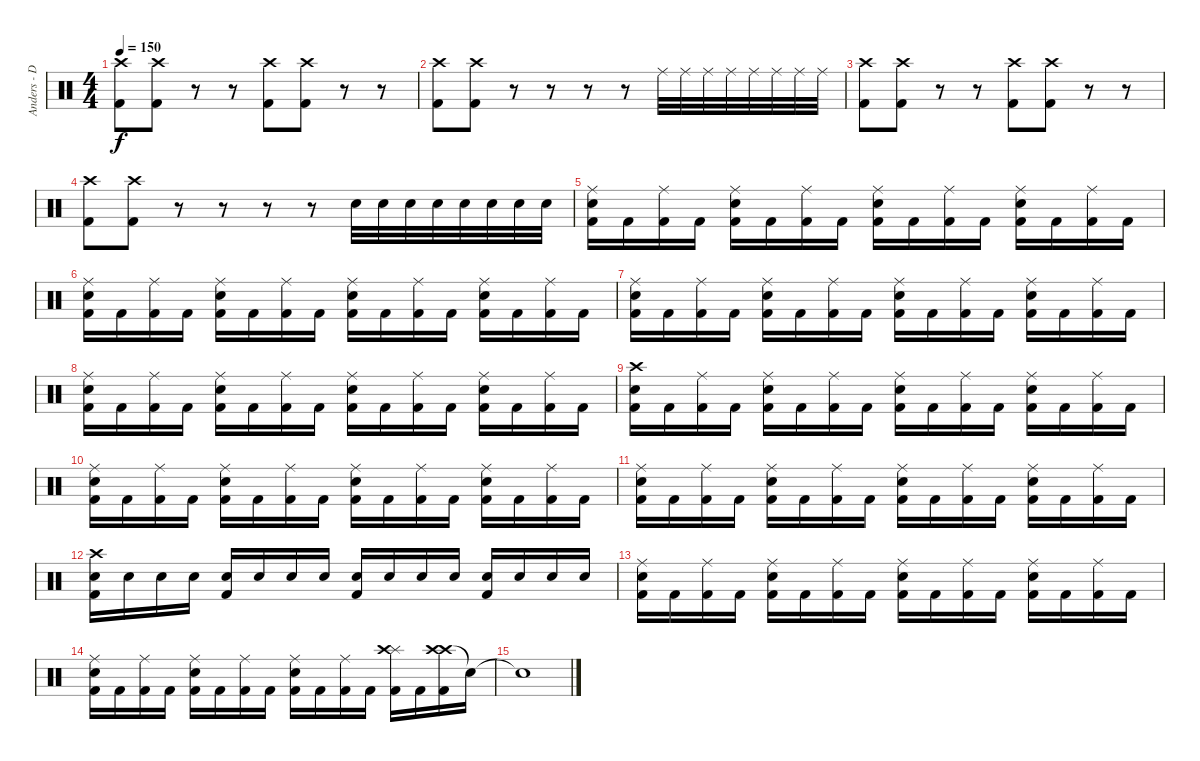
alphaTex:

\track ("Anders - Drums" "Anders - D") {instrument percussion}
\staff {score}
\articulation defaults
\ts (4 4)
\tempo 150
\clef neutral
\ks c
("Crash high (hit)" "Kick (hit) 2").8{dy f} ("Crash high (hit)" "Kick (hit) 2").8 r.8 r.8 ("Crash high (hit)" "Kick (hit) 2").8 ("Crash high (hit)" "Kick (hit) 2").8 r.8 r.8 |
("Crash high (hit)" "Kick (hit) 2").8 ("Crash high (hit)" "Kick (hit) 2").8 r.8 r.8 r.8 r.8 "Ride (middle)".32 "Ride (middle)".32 "Ride (middle)".32 "Ride (middle)".32 "Ride (middle)".32 "Ride (middle)".32 "Ride (middle)".32 "Ride (middle)".32 |
("Crash high (hit)" "Kick (hit) 2").8 ("Crash high (hit)" "Kick (hit) 2").8 r.8 r.8 ("Crash high (hit)" "Kick (hit) 2").8 ("Crash high (hit)" "Kick (hit) 2").8 r.8 r.8 |
("Crash high (hit)" "Kick (hit) 2").8 ("Crash high (hit)" "Kick (hit) 2").8 r.8 r.8 r.8 r.8 "Snare (hit) 2".32 "Snare (hit) 2".32 "Snare (hit) 2".32 "Snare (hit) 2".32 "Snare (hit) 2".32 "Snare (hit) 2".32 "Snare (hit) 2".32 "Snare (hit) 2".32 |
("Ride (middle)" "Snare (hit) 2" "Kick (hit) 2").16 "Kick (hit) 2".16 ("Ride (middle)" "Kick (hit) 2").16 "Kick (hit) 2".16 ("Ride (middle)" "Snare (hit) 2" "Kick (hit) 2").16 "Kick (hit) 2".16 ("Ride (middle)" "Kick (hit) 2").16 "Kick (hit) 2".16 ("Ride (middle)" "Snare (hit) 2" "Kick (hit) 2").16 "Kick (hit) 2".16 ("Ride (middle)" "Kick (hit) 2").16 "Kick (hit) 2".16 ("Ride (middle)" "Snare (hit) 2" "Kick (hit) 2").16 "Kick (hit) 2".16 ("Ride (middle)" "Kick (hit) 2").16 "Kick (hit) 2".16 |
("Ride (middle)" "Snare (hit) 2" "Kick (hit) 2").16 "Kick (hit) 2".16 ("Ride (middle)" "Kick (hit) 2").16 "Kick (hit) 2".16 ("Ride (middle)" "Snare (hit) 2" "Kick (hit) 2").16 "Kick (hit) 2".16 ("Ride (middle)" "Kick (hit) 2").16 "Kick (hit) 2".16 ("Ride (middle)" "Snare (hit) 2" "Kick (hit) 2").16 "Kick (hit) 2".16 ("Ride (middle)" "Kick (hit) 2").16 "Kick (hit) 2".16 ("Ride (middle)" "Snare (hit) 2" "Kick (hit) 2").16 "Kick (hit) 2".16 ("Ride (middle)" "Kick (hit) 2").16 "Kick (hit) 2".16 |
("Ride (middle)" "Snare (hit) 2" "Kick (hit) 2").16 "Kick (hit) 2".16 ("Ride (middle)" "Kick (hit) 2").16 "Kick (hit) 2".16 ("Ride (middle)" "Snare (hit) 2" "Kick (hit) 2").16 "Kick (hit) 2".16 ("Ride (middle)" "Kick (hit) 2").16 "Kick (hit) 2".16 ("Ride (middle)" "Snare (hit) 2" "Kick (hit) 2").16 "Kick (hit) 2".16 ("Ride (middle)" "Kick (hit) 2").16 "Kick (hit) 2".16 ("Ride (middle)" "Snare (hit) 2" "Kick (hit) 2").16 "Kick (hit) 2".16 ("Ride (middle)" "Kick (hit) 2").16 "Kick (hit) 2".16 |
("Ride (middle)" "Snare (hit) 2" "Kick (hit) 2").16 "Kick (hit) 2".16 ("Ride (middle)" "Kick (hit) 2").16 "Kick (hit) 2".16 ("Ride (middle)" "Snare (hit) 2" "Kick (hit) 2").16 "Kick (hit) 2".16 ("Ride (middle)" "Kick (hit) 2").16 "Kick (hit) 2".16 ("Ride (middle)" "Snare (hit) 2" "Kick (hit) 2").16 "Kick (hit) 2".16 ("Ride (middle)" "Kick (hit) 2").16 "Kick (hit) 2".16 ("Ride (middle)" "Snare (hit) 2" "Kick (hit) 2").16 "Kick (hit) 2".16 ("Ride (middle)" "Kick (hit) 2").16 "Kick (hit) 2".16 |
("Crash high (hit)" "Snare (hit) 2" "Kick (hit) 2").16 "Kick (hit) 2".16 ("Ride (middle)" "Kick (hit) 2").16 "Kick (hit) 2".16 ("Ride (middle)" "Snare (hit) 2" "Kick (hit) 2").16 "Kick (hit) 2".16 ("Ride (middle)" "Kick (hit) 2").16 "Kick (hit) 2".16 ("Ride (middle)" "Snare (hit) 2" "Kick (hit) 2").16 "Kick (hit) 2".16 ("Ride (middle)" "Kick (hit) 2").16 "Kick (hit) 2".16 ("Ride (middle)" "Snare (hit) 2" "Kick (hit) 2").16 "Kick (hit) 2".16 ("Ride (middle)" "Kick (hit) 2").16 "Kick (hit) 2".16 |
("Ride (middle)" "Snare (hit) 2" "Kick (hit) 2").16 "Kick (hit) 2".16 ("Ride (middle)" "Kick (hit) 2").16 "Kick (hit) 2".16 ("Ride (middle)" "Snare (hit) 2" "Kick (hit) 2").16 "Kick (hit) 2".16 ("Ride (middle)" "Kick (hit) 2").16 "Kick (hit) 2".16 ("Ride (middle)" "Snare (hit) 2" "Kick (hit) 2").16 "Kick (hit) 2".16 ("Ride (middle)" "Kick (hit) 2").16 "Kick (hit) 2".16 ("Ride (middle)" "Snare (hit) 2" "Kick (hit) 2").16 "Kick (hit) 2".16 ("Ride (middle)" "Kick (hit) 2").16 "Kick (hit) 2".16 |
("Ride (middle)" "Snare (hit) 2" "Kick (hit) 2").16 "Kick (hit) 2".16 ("Ride (middle)" "Kick (hit) 2").16 "Kick (hit) 2".16 ("Ride (middle)" "Snare (hit) 2" "Kick (hit) 2").16 "Kick (hit) 2".16 ("Ride (middle)" "Kick (hit) 2").16 "Kick (hit) 2".16 ("Ride (middle)" "Snare (hit) 2" "Kick (hit) 2").16 "Kick (hit) 2".16 ("Ride (middle)" "Kick (hit) 2").16 "Kick (hit) 2".16 ("Ride (middle)" "Snare (hit) 2" "Kick (hit) 2").16 "Kick (hit) 2".16 ("Ride (middle)" "Kick (hit) 2").16 "Kick (hit) 2".16 |
("Crash high (hit)" "Snare (hit) 2" "Kick (hit) 2").16 "Snare (hit) 2".16 "Snare (hit) 2".16 "Snare (hit) 2".16 ("Snare (hit) 2" "Kick (hit) 2").16 "Snare (hit) 2".16 "Snare (hit) 2".16 "Snare (hit) 2".16 ("Snare (hit) 2" "Kick (hit) 2").16 "Snare (hit) 2".16 "Snare (hit) 2".16 "Snare (hit) 2".16 ("Snare (hit) 2" "Kick (hit) 2").16 "Snare (hit) 2".16 "Snare (hit) 2".16 "Snare (hit) 2".16 |
("Ride (middle)" "Snare (hit) 2" "Kick (hit) 2").16 "Kick (hit) 2".16 ("Ride (middle)" "Kick (hit) 2").16 "Kick (hit) 2".16 ("Ride (middle)" "Snare (hit) 2" "Kick (hit) 2").16 "Kick (hit) 2".16 ("Ride (middle)" "Kick (hit) 2").16 "Kick (hit) 2".16 ("Ride (middle)" "Snare (hit) 2" "Kick (hit) 2").16 "Kick (hit) 2".16 ("Ride (middle)" "Kick (hit) 2").16 "Kick (hit) 2".16 ("Ride (middle)" "Snare (hit) 2" "Kick (hit) 2").16 "Kick (hit) 2".16 ("Ride (middle)" "Kick (hit) 2").16 "Kick (hit) 2".16 |
("Ride (middle)" "Snare (hit) 2" "Kick (hit) 2").16 "Kick (hit) 2".16 ("Ride (middle)" "Kick (hit) 2").16 "Kick (hit) 2".16 ("Ride (middle)" "Snare (hit) 2" "Kick (hit) 2").16 "Kick (hit) 2".16 ("Ride (middle)" "Kick (hit) 2").16 "Kick (hit) 2".16 ("Ride (middle)" "Snare (hit) 2" "Kick (hit) 2").16 "Kick (hit) 2".16 ("Ride (middle)" "Kick (hit) 2").16 "Kick (hit) 2".16 ("Splash (hit)" "Crash high (hit)" "Kick (hit) 2").16 "Kick (hit) 2".16 ("Crash high (hit)" "Crash high (hit)" "Kick (hit) 2").16 "Snare (hit)"{t}.16 |
"Snare (hit)"{t}.1
